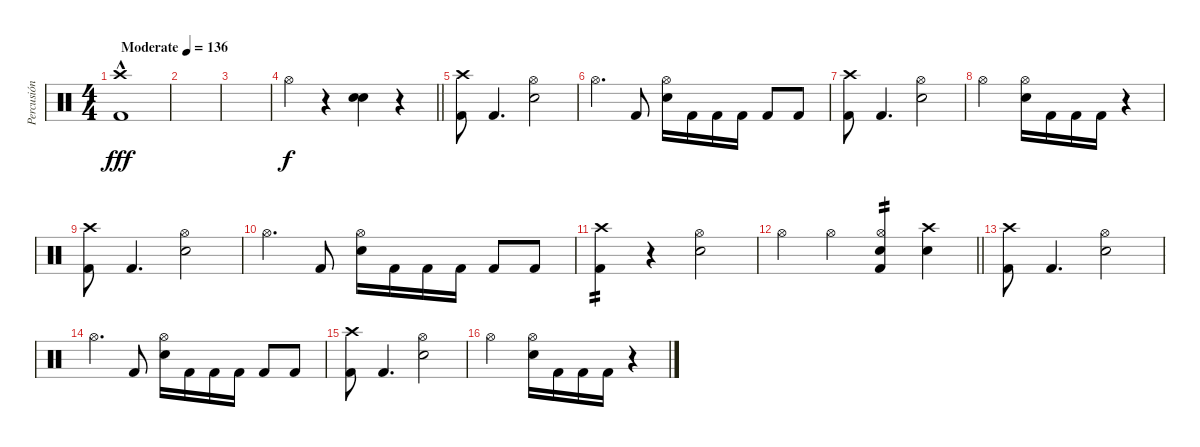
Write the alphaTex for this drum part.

\track ("Percusión" "Percusión") {instrument percussion}
\staff
\articulation defaults
\ts (4 4)
\section ("" "")
\tempo (136 "Moderate")
\clef neutral
\ks c
("Kick (hit) 2" "Crash high (hit)"{hac}).1{dy fff} |
|
|
\barLineRight lightlight "Hi-Hat (open)".4{dy f}
r.4 ("Electric Snare (hit)" "Snare (hit) 2").4 r.4 |
\section ("" "")
("Kick (hit) 2" "Crash high (hit)").8 "Kick (hit) 2".4{d} ("Hi-Hat (open)" "Electric Snare (hit)").2 |
"Hi-Hat (open)".4{d} "Kick (hit) 2".8 ("Hi-Hat (open)" "Electric Snare (hit)").16 "Kick (hit) 2".16 "Kick (hit) 2".16 "Kick (hit) 2".16 "Kick (hit) 2".8 "Kick (hit) 2".8 |
("Kick (hit) 2" "Crash high (hit)").8 "Kick (hit) 2".4{d} ("Hi-Hat (open)" "Electric Snare (hit)").2 |
"Hi-Hat (open)".2 ("Hi-Hat (open)" "Electric Snare (hit)").16 "Kick (hit) 2".16 "Kick (hit) 2".16 "Kick (hit) 2".16 r.4 |
("Kick (hit) 2" "Crash high (hit)").8 "Kick (hit) 2".4{d} ("Hi-Hat (open)" "Electric Snare (hit)").2 |
"Hi-Hat (open)".4{d} "Kick (hit) 2".8 ("Hi-Hat (open)" "Electric Snare (hit)").16 "Kick (hit) 2".16 "Kick (hit) 2".16 "Kick (hit) 2".16 "Kick (hit) 2".8 "Kick (hit) 2".8 |
("Kick (hit) 2" "Crash high (hit)").4{tp 2} r.4 ("Hi-Hat (open)" "Electric Snare (hit)").2 |
\barLineRight lightlight "Hi-Hat (open)".4 "Hi-Hat (open)".4
("Kick (hit) 2" "Hi-Hat (open)" "Electric Snare (hit)").4{tp 2} ("Crash high (hit)" "Electric Snare (hit)").4 |
\section ("" "")
("Kick (hit) 2" "Crash high (hit)").8 "Kick (hit) 2".4{d} ("Hi-Hat (open)" "Electric Snare (hit)").2 |
"Hi-Hat (open)".4{d} "Kick (hit) 2".8 ("Hi-Hat (open)" "Electric Snare (hit)").16 "Kick (hit) 2".16 "Kick (hit) 2".16 "Kick (hit) 2".16 "Kick (hit) 2".8 "Kick (hit) 2".8 |
("Kick (hit) 2" "Crash high (hit)").8 "Kick (hit) 2".4{d} ("Hi-Hat (open)" "Electric Snare (hit)").2 |
"Hi-Hat (open)".2 ("Hi-Hat (open)" "Electric Snare (hit)").16 "Kick (hit) 2".16 "Kick (hit) 2".16 "Kick (hit) 2".16 r.4
